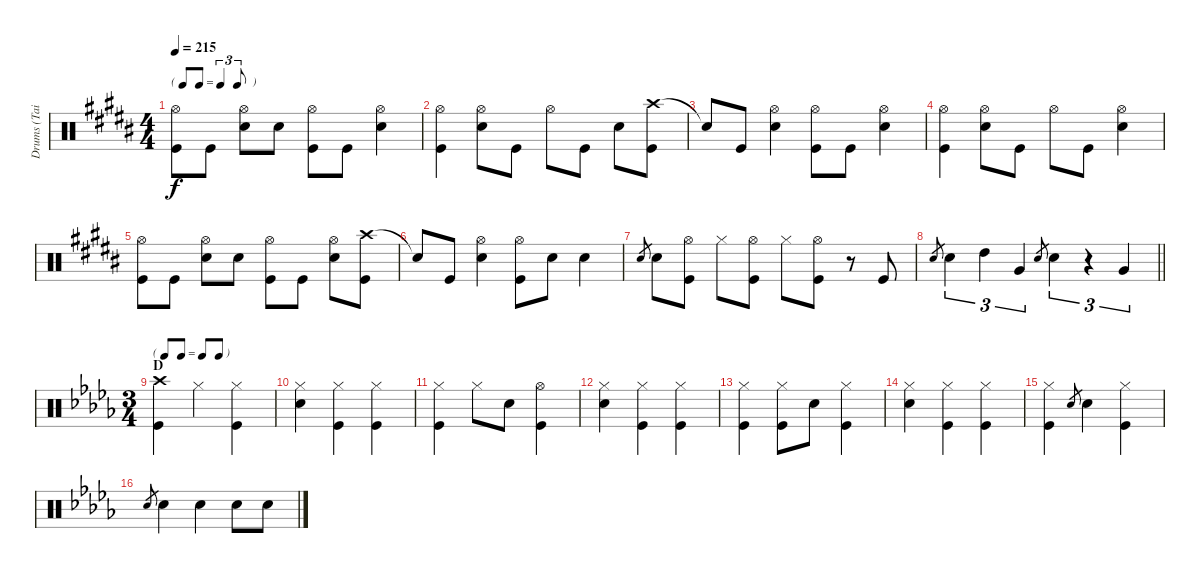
\track ("Drums (Tainaka Ritsu)" "Drums (Tai") {instrument percussion}
\staff {score}
\articulation defaults
\ts (4 4)
\tf triplet8th
\tempo 215
\clef neutral
\ks b
("Hi-Hat (open)" "Kick (hit)").8{dy f} "Kick (hit)".8 ("Hi-Hat (open)" "Snare (hit) 2").8 "Snare (hit) 2".8 ("Hi-Hat (open)" "Kick (hit)").8 "Kick (hit)".8 ("Hi-Hat (open)" "Snare (hit) 2").4 |
("Hi-Hat (open)" "Kick (hit)").4 ("Hi-Hat (open)" "Snare (hit) 2").8 "Kick (hit)".8 "Hi-Hat (open)".8 "Kick (hit)".8 "Snare (hit) 2".8 ("Crash high (hit)" "Kick (hit)").8 |
"Snare (hit)"{t}.8 "Kick (hit)".8 ("Hi-Hat (open)" "Snare (hit) 2").4 ("Hi-Hat (open)" "Kick (hit)").8 "Kick (hit)".8 ("Hi-Hat (open)" "Snare (hit) 2").4 |
("Hi-Hat (open)" "Kick (hit)").4 ("Hi-Hat (open)" "Snare (hit) 2").8 "Kick (hit)".8 "Hi-Hat (open)".8 "Kick (hit)".8 ("Hi-Hat (open)" "Snare (hit) 2").4 |
("Hi-Hat (open)" "Kick (hit)").8 "Kick (hit)".8 ("Hi-Hat (open)" "Snare (hit) 2").8 "Snare (hit) 2".8 ("Hi-Hat (open)" "Kick (hit)").8 "Kick (hit)".8 ("Hi-Hat (open)" "Snare (hit) 2").8 ("Crash high (hit)" "Kick (hit)").8 |
"Snare (hit)"{t}.8 "Kick (hit)".8 ("Hi-Hat (open)" "Snare (hit) 2").4 ("Hi-Hat (open)" "Kick (hit)").8 "Snare (hit) 2".8 "Snare (hit) 2".4 |
"Snare (hit) 2".8{gr} "Snare (hit) 2".8 ("Hi-Hat (open)" "Kick (hit)").8 "Hi-Hat (closed)".8 ("Hi-Hat (open)" "Kick (hit)").8 "Hi-Hat (closed)".8 ("Hi-Hat (open)" "Kick (hit)").8 r.8 "Kick (hit)".8 |
\barLineRight lightlight "Snare (hit) 2".8{gr} "Snare (hit) 2".4{tu (3 2)} "High Tom (hit)".4{tu (3 2)} "Very Low Tom (hit)".4{tu (3 2)} "Snare (hit) 2".8{gr} "Snare (hit) 2".4{tu (3 2)}
r.4{tu (3 2)} "Very Low Tom (hit)".4{tu (3 2)} |
\ts (3 4)
\tf none
\section ("" "D")
\ks db
("Crash high (hit)" "Kick (hit)").4 "Hi-Hat (closed)".4 ("Hi-Hat (closed)" "Kick (hit)").4 |
("Hi-Hat (closed)" "Snare (hit) 2").4 ("Hi-Hat (closed)" "Kick (hit)").4 ("Hi-Hat (closed)" "Kick (hit)").4 |
("Hi-Hat (closed)" "Kick (hit)").4 "Hi-Hat (closed)".8 "Snare (hit) 2".8 ("Hi-Hat (open)" "Kick (hit)").4 |
("Hi-Hat (closed)" "Snare (hit) 2").4 ("Hi-Hat (closed)" "Kick (hit)").4 ("Hi-Hat (closed)" "Kick (hit)").4 |
("Hi-Hat (closed)" "Kick (hit)").4 ("Hi-Hat (closed)" "Kick (hit)").8 "Snare (hit) 2".8 ("Hi-Hat (closed)" "Kick (hit)").4 |
("Hi-Hat (closed)" "Snare (hit) 2").4 ("Hi-Hat (closed)" "Kick (hit)").4 ("Hi-Hat (closed)" "Kick (hit)").4 |
("Hi-Hat (closed)" "Kick (hit)").4 "Snare (hit) 2".8{gr} "Snare (hit) 2".4 ("Hi-Hat (closed)" "Kick (hit)").4 |
"Snare (hit) 2".8{gr} "Snare (hit) 2".4 "Snare (hit) 2".4 "Snare (hit) 2".8 "Snare (hit) 2".8
